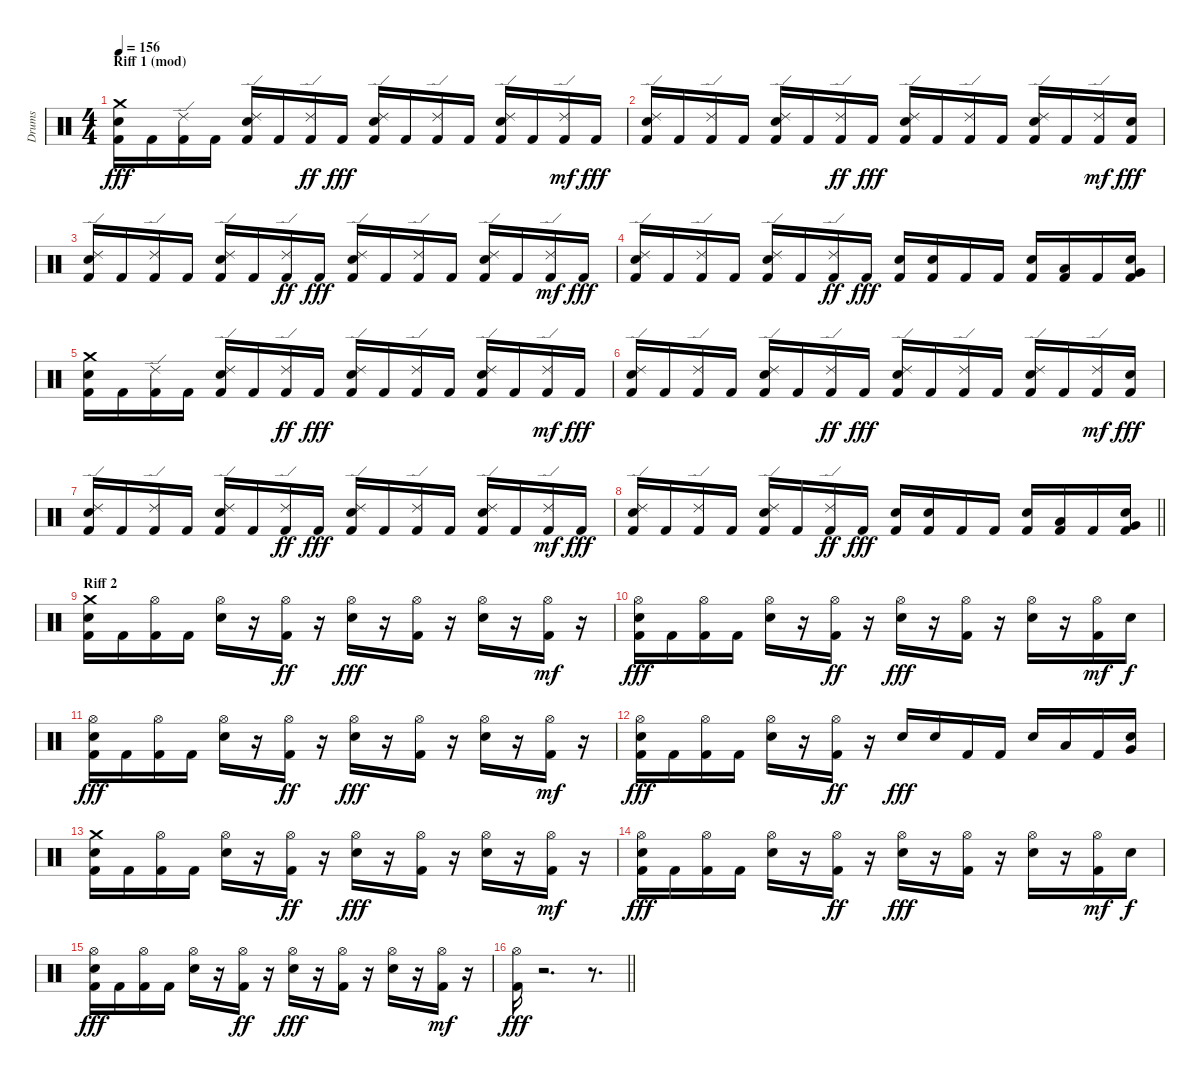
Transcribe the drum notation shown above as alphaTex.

\track ("Drums" "Drums") {instrument percussion}
\staff {score}
\articulation defaults
\ts (4 4)
\section ("" "Riff 1 (mod)")
\tempo 156
\clef neutral
\ks c
("Kick (hit) 2" "Snare (hit) 2" "Crash medium (hit)").16{dy fff} "Kick (hit) 2".16 ("Kick (hit) 2" "Ride (edge) 2").16 "Kick (hit) 2".16 ("Kick (hit) 2" "Snare (hit) 2" "Ride (edge) 2").16 "Kick (hit) 2".16 ("Kick (hit) 2" "Ride (edge) 2").16{dy ff} "Kick (hit) 2".16{dy fff} ("Kick (hit) 2" "Snare (hit) 2" "Ride (edge) 2").16 "Kick (hit) 2".16 ("Kick (hit) 2" "Ride (edge) 2").16 "Kick (hit) 2".16 ("Kick (hit) 2" "Snare (hit) 2" "Ride (edge) 2").16 "Kick (hit) 2".16 ("Kick (hit) 2" "Ride (edge) 2").16{dy mf} "Kick (hit) 2".16{dy fff} |
("Kick (hit) 2" "Snare (hit) 2" "Ride (edge) 2").16 "Kick (hit) 2".16 ("Kick (hit) 2" "Ride (edge) 2").16 "Kick (hit) 2".16 ("Kick (hit) 2" "Snare (hit) 2" "Ride (edge) 2").16 "Kick (hit) 2".16 ("Kick (hit) 2" "Ride (edge) 2").16{dy ff} "Kick (hit) 2".16{dy fff} ("Kick (hit) 2" "Snare (hit) 2" "Ride (edge) 2").16 "Kick (hit) 2".16 ("Kick (hit) 2" "Ride (edge) 2").16 "Kick (hit) 2".16 ("Kick (hit) 2" "Snare (hit) 2" "Ride (edge) 2").16 "Kick (hit) 2".16 ("Kick (hit) 2" "Ride (edge) 2").16{dy mf} ("Kick (hit) 2" "Snare (hit) 2").16{dy fff} |
("Kick (hit) 2" "Snare (hit) 2" "Ride (edge) 2").16 "Kick (hit) 2".16 ("Kick (hit) 2" "Ride (edge) 2").16 "Kick (hit) 2".16 ("Kick (hit) 2" "Snare (hit) 2" "Ride (edge) 2").16 "Kick (hit) 2".16 ("Kick (hit) 2" "Ride (edge) 2").16{dy ff} "Kick (hit) 2".16{dy fff} ("Kick (hit) 2" "Snare (hit) 2" "Ride (edge) 2").16 "Kick (hit) 2".16 ("Kick (hit) 2" "Ride (edge) 2").16 "Kick (hit) 2".16 ("Kick (hit) 2" "Snare (hit) 2" "Ride (edge) 2").16 "Kick (hit) 2".16 ("Kick (hit) 2" "Ride (edge) 2").16{dy mf} "Kick (hit) 2".16{dy fff} |
("Kick (hit) 2" "Snare (hit) 2" "Ride (edge) 2").16 "Kick (hit) 2".16 ("Kick (hit) 2" "Ride (edge) 2").16 "Kick (hit) 2".16 ("Kick (hit) 2" "Snare (hit) 2" "Ride (edge) 2").16 "Kick (hit) 2".16 ("Kick (hit) 2" "Ride (edge) 2").16{dy ff} "Kick (hit) 2".16{dy fff} ("Kick (hit) 2" "Snare (hit) 2").16 ("Kick (hit) 2" "Snare (hit) 2").16 "Kick (hit) 2".16 "Kick (hit) 2".16 ("Kick (hit) 2" "Snare (hit) 2").16 ("Kick (hit) 2" "Low Tom (hit)").16 "Kick (hit) 2".16 ("Kick (hit) 2" "Snare (hit) 2" "Very Low Tom (hit)").16 |
("Kick (hit) 2" "Snare (hit) 2" "Crash medium (hit)").16 "Kick (hit) 2".16 ("Kick (hit) 2" "Ride (edge) 2").16 "Kick (hit) 2".16 ("Kick (hit) 2" "Snare (hit) 2" "Ride (edge) 2").16 "Kick (hit) 2".16 ("Kick (hit) 2" "Ride (edge) 2").16{dy ff} "Kick (hit) 2".16{dy fff} ("Kick (hit) 2" "Snare (hit) 2" "Ride (edge) 2").16 "Kick (hit) 2".16 ("Kick (hit) 2" "Ride (edge) 2").16 "Kick (hit) 2".16 ("Kick (hit) 2" "Snare (hit) 2" "Ride (edge) 2").16 "Kick (hit) 2".16 ("Kick (hit) 2" "Ride (edge) 2").16{dy mf} "Kick (hit) 2".16{dy fff} |
("Kick (hit) 2" "Snare (hit) 2" "Ride (edge) 2").16 "Kick (hit) 2".16 ("Kick (hit) 2" "Ride (edge) 2").16 "Kick (hit) 2".16 ("Kick (hit) 2" "Snare (hit) 2" "Ride (edge) 2").16 "Kick (hit) 2".16 ("Kick (hit) 2" "Ride (edge) 2").16{dy ff} "Kick (hit) 2".16{dy fff} ("Kick (hit) 2" "Snare (hit) 2" "Ride (edge) 2").16 "Kick (hit) 2".16 ("Kick (hit) 2" "Ride (edge) 2").16 "Kick (hit) 2".16 ("Kick (hit) 2" "Snare (hit) 2" "Ride (edge) 2").16 "Kick (hit) 2".16 ("Kick (hit) 2" "Ride (edge) 2").16{dy mf} ("Kick (hit) 2" "Snare (hit) 2").16{dy fff} |
("Kick (hit) 2" "Snare (hit) 2" "Ride (edge) 2").16 "Kick (hit) 2".16 ("Kick (hit) 2" "Ride (edge) 2").16 "Kick (hit) 2".16 ("Kick (hit) 2" "Snare (hit) 2" "Ride (edge) 2").16 "Kick (hit) 2".16 ("Kick (hit) 2" "Ride (edge) 2").16{dy ff} "Kick (hit) 2".16{dy fff} ("Kick (hit) 2" "Snare (hit) 2" "Ride (edge) 2").16 "Kick (hit) 2".16 ("Kick (hit) 2" "Ride (edge) 2").16 "Kick (hit) 2".16 ("Kick (hit) 2" "Snare (hit) 2" "Ride (edge) 2").16 "Kick (hit) 2".16 ("Kick (hit) 2" "Ride (edge) 2").16{dy mf} "Kick (hit) 2".16{dy fff} |
\barLineRight lightlight
("Kick (hit) 2" "Snare (hit) 2" "Ride (edge) 2").16 "Kick (hit) 2".16 ("Kick (hit) 2" "Ride (edge) 2").16 "Kick (hit) 2".16 ("Kick (hit) 2" "Snare (hit) 2" "Ride (edge) 2").16 "Kick (hit) 2".16 ("Kick (hit) 2" "Ride (edge) 2").16{dy ff} "Kick (hit) 2".16{dy fff} ("Kick (hit) 2" "Snare (hit) 2").16 ("Kick (hit) 2" "Snare (hit) 2").16 "Kick (hit) 2".16 "Kick (hit) 2".16 ("Kick (hit) 2" "Snare (hit) 2").16 ("Kick (hit) 2" "Low Tom (hit)").16 "Kick (hit) 2".16 ("Kick (hit) 2" "Snare (hit) 2" "Very Low Tom (hit)").16 |
\section ("" "Riff 2")
("Kick (hit) 2" "Snare (hit) 2" "Crash medium (hit)").16 "Kick (hit) 2".16 ("Kick (hit) 2" "Hi-Hat (open)").16 "Kick (hit) 2".16 ("Snare (hit) 2" "Hi-Hat (open)").16 r.16 ("Kick (hit) 2" "Hi-Hat (open)").16{dy ff} r.16 ("Snare (hit) 2" "Hi-Hat (open)").16{dy fff} r.16 ("Kick (hit) 2" "Hi-Hat (open)").16 r.16 ("Snare (hit) 2" "Hi-Hat (open)").16 r.16 ("Kick (hit) 2" "Hi-Hat (open)").16{dy mf} r.16 |
("Kick (hit) 2" "Snare (hit) 2" "Hi-Hat (open)").16{dy fff} "Kick (hit) 2".16 ("Kick (hit) 2" "Hi-Hat (open)").16 "Kick (hit) 2".16 ("Snare (hit) 2" "Hi-Hat (open)").16 r.16 ("Kick (hit) 2" "Hi-Hat (open)").16{dy ff} r.16 ("Snare (hit) 2" "Hi-Hat (open)").16{dy fff} r.16 ("Kick (hit) 2" "Hi-Hat (open)").16 r.16 ("Snare (hit) 2" "Hi-Hat (open)").16 r.16 ("Kick (hit) 2" "Hi-Hat (open)").16{dy mf} "Snare (hit) 2".16{dy f} |
("Kick (hit) 2" "Snare (hit) 2" "Hi-Hat (open)").16{dy fff} "Kick (hit) 2".16 ("Kick (hit) 2" "Hi-Hat (open)").16 "Kick (hit) 2".16 ("Snare (hit) 2" "Hi-Hat (open)").16 r.16 ("Kick (hit) 2" "Hi-Hat (open)").16{dy ff} r.16 ("Snare (hit) 2" "Hi-Hat (open)").16{dy fff} r.16 ("Kick (hit) 2" "Hi-Hat (open)").16 r.16 ("Snare (hit) 2" "Hi-Hat (open)").16 r.16 ("Kick (hit) 2" "Hi-Hat (open)").16{dy mf} r.16 |
("Kick (hit) 2" "Snare (hit) 2" "Hi-Hat (open)").16{dy fff} "Kick (hit) 2".16 ("Kick (hit) 2" "Hi-Hat (open)").16 "Kick (hit) 2".16 ("Snare (hit) 2" "Hi-Hat (open)").16 r.16 ("Kick (hit) 2" "Hi-Hat (open)").16{dy ff} r.16 "Snare (hit) 2".16{dy fff} "Snare (hit) 2".16 "Kick (hit) 2".16 "Kick (hit) 2".16 "Snare (hit) 2".16 "Low Tom (hit)".16 "Kick (hit) 2".16 ("Snare (hit) 2" "Very Low Tom (hit)").16 |
("Kick (hit) 2" "Snare (hit) 2" "Crash medium (hit)").16 "Kick (hit) 2".16 ("Kick (hit) 2" "Hi-Hat (open)").16 "Kick (hit) 2".16 ("Snare (hit) 2" "Hi-Hat (open)").16 r.16 ("Kick (hit) 2" "Hi-Hat (open)").16{dy ff} r.16 ("Snare (hit) 2" "Hi-Hat (open)").16{dy fff} r.16 ("Kick (hit) 2" "Hi-Hat (open)").16 r.16 ("Snare (hit) 2" "Hi-Hat (open)").16 r.16 ("Kick (hit) 2" "Hi-Hat (open)").16{dy mf} r.16 |
("Kick (hit) 2" "Snare (hit) 2" "Hi-Hat (open)").16{dy fff} "Kick (hit) 2".16 ("Kick (hit) 2" "Hi-Hat (open)").16 "Kick (hit) 2".16 ("Snare (hit) 2" "Hi-Hat (open)").16 r.16 ("Kick (hit) 2" "Hi-Hat (open)").16{dy ff} r.16 ("Snare (hit) 2" "Hi-Hat (open)").16{dy fff} r.16 ("Kick (hit) 2" "Hi-Hat (open)").16 r.16 ("Snare (hit) 2" "Hi-Hat (open)").16 r.16 ("Kick (hit) 2" "Hi-Hat (open)").16{dy mf} "Snare (hit) 2".16{dy f} |
("Kick (hit) 2" "Snare (hit) 2" "Hi-Hat (open)").16{dy fff} "Kick (hit) 2".16 ("Kick (hit) 2" "Hi-Hat (open)").16 "Kick (hit) 2".16 ("Snare (hit) 2" "Hi-Hat (open)").16 r.16 ("Kick (hit) 2" "Hi-Hat (open)").16{dy ff} r.16 ("Snare (hit) 2" "Hi-Hat (open)").16{dy fff} r.16 ("Kick (hit) 2" "Hi-Hat (open)").16 r.16 ("Snare (hit) 2" "Hi-Hat (open)").16 r.16 ("Kick (hit) 2" "Hi-Hat (open)").16{dy mf} r.16 |
\barLineRight lightlight
("Kick (hit) 2" "Hi-Hat (open)").16{dy fff} r.2{d} r.8{d}
